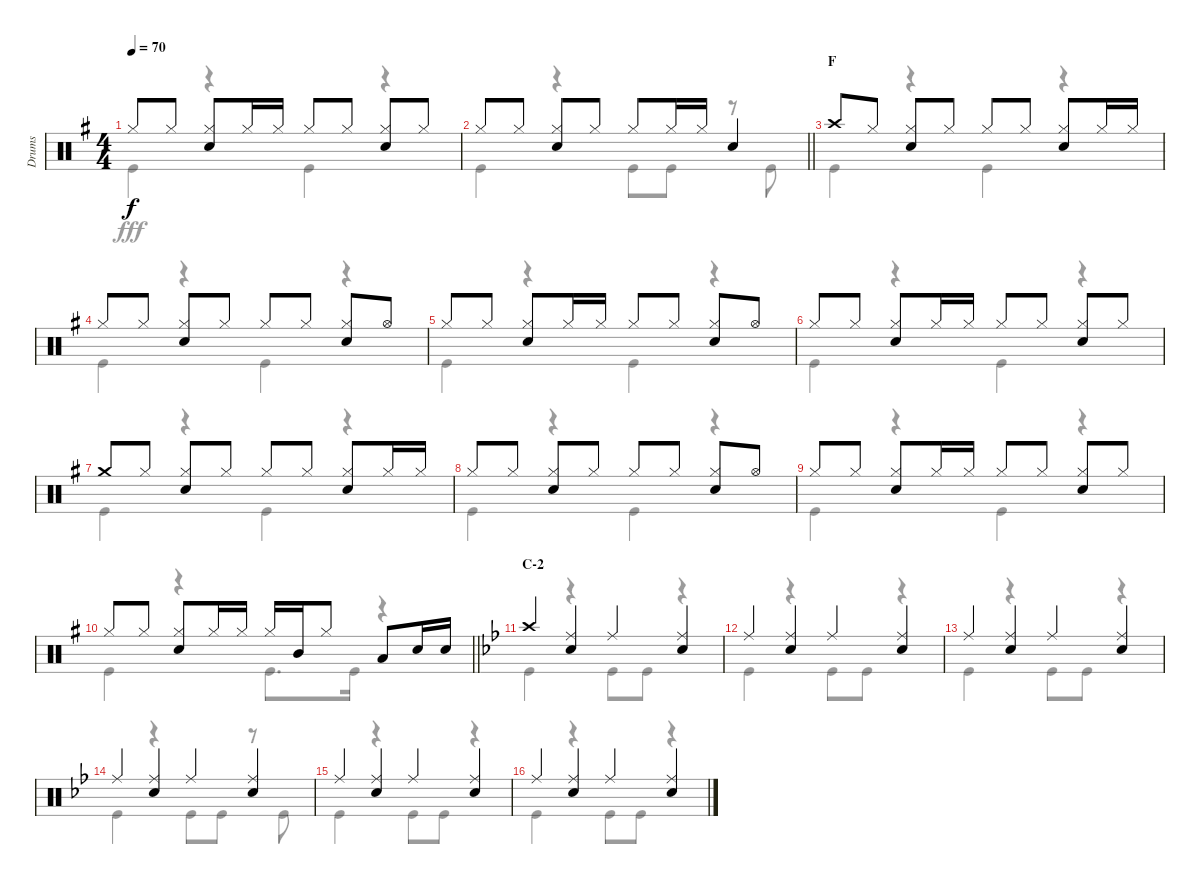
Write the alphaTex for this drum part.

\track ("Drums" "Drums") {instrument percussion}
\staff {score}
\articulation defaults
\voice
\ts (4 4)
\tempo 70
\clef neutral
\ks g "Hi-Hat (closed)".8{dy f} "Hi-Hat (closed)".8
("Hi-Hat (closed)" "Snare (hit) 2").8 "Hi-Hat (closed)".16 "Hi-Hat (closed)".16 "Hi-Hat (closed)".8 "Hi-Hat (closed)".8 ("Hi-Hat (closed)" "Snare (hit) 2").8 "Hi-Hat (closed)".8 |
\barLineRight lightlight "Hi-Hat (closed)".8 "Hi-Hat (closed)".8
("Hi-Hat (closed)" "Snare (hit) 2").8 "Hi-Hat (closed)".8 "Hi-Hat (closed)".8 "Hi-Hat (closed)".16 "Hi-Hat (closed)".16 "Snare (hit) 2".4 |
\section ("" "F")
"Crash high (hit)".8 "Hi-Hat (closed)".8 ("Hi-Hat (closed)" "Snare (hit) 2").8 "Hi-Hat (closed)".8 "Hi-Hat (closed)".8 "Hi-Hat (closed)".8 ("Hi-Hat (closed)" "Snare (hit) 2").8 "Hi-Hat (closed)".16 "Hi-Hat (closed)".16 |
"Hi-Hat (closed)".8 "Hi-Hat (closed)".8 ("Hi-Hat (closed)" "Snare (hit) 2").8 "Hi-Hat (closed)".8 "Hi-Hat (closed)".8 "Hi-Hat (closed)".8 ("Hi-Hat (closed)" "Snare (hit) 2").8 "Hi-Hat (open)".8 |
"Hi-Hat (closed)".8 "Hi-Hat (closed)".8 ("Hi-Hat (closed)" "Snare (hit) 2").8 "Hi-Hat (closed)".16 "Hi-Hat (closed)".16 "Hi-Hat (closed)".8 "Hi-Hat (closed)".8 ("Hi-Hat (closed)" "Snare (hit) 2").8 "Hi-Hat (open)".8 |
"Hi-Hat (closed)".8 "Hi-Hat (closed)".8 ("Hi-Hat (closed)" "Snare (hit) 2").8 "Hi-Hat (closed)".16 "Hi-Hat (closed)".16 "Hi-Hat (closed)".8 "Hi-Hat (closed)".8 ("Hi-Hat (closed)" "Snare (hit) 2").8 "Hi-Hat (closed)".8 |
"Crash medium (hit)".8 "Hi-Hat (closed)".8 ("Hi-Hat (closed)" "Snare (hit) 2").8 "Hi-Hat (closed)".8 "Hi-Hat (closed)".8 "Hi-Hat (closed)".8 ("Hi-Hat (closed)" "Snare (hit) 2").8 "Hi-Hat (closed)".16 "Hi-Hat (closed)".16 |
"Hi-Hat (closed)".8 "Hi-Hat (closed)".8 ("Hi-Hat (closed)" "Snare (hit) 2").8 "Hi-Hat (closed)".8 "Hi-Hat (closed)".8 "Hi-Hat (closed)".8 ("Hi-Hat (closed)" "Snare (hit) 2").8 "Hi-Hat (open)".8 |
"Hi-Hat (closed)".8 "Hi-Hat (closed)".8 ("Hi-Hat (closed)" "Snare (hit) 2").8 "Hi-Hat (closed)".16 "Hi-Hat (closed)".16 "Hi-Hat (closed)".8 "Hi-Hat (closed)".8 ("Hi-Hat (closed)" "Snare (hit) 2").8 "Hi-Hat (closed)".8 |
\barLineRight lightlight "Hi-Hat (closed)".8 "Hi-Hat (closed)".8
("Hi-Hat (closed)" "Snare (hit) 2").8 "Hi-Hat (closed)".16 "Hi-Hat (closed)".16 "Hi-Hat (closed)".16 "Mid Tom (hit)".16 "Hi-Hat (closed)".8 "Low Tom (hit)".8 "Snare (hit) 2".16 "Snare (hit) 2".16 |
\section ("" "C-2")
\ks bb "Crash high (hit)".4
("Ride (middle)" "Snare (hit) 2").4 "Ride (middle)".4 ("Ride (middle)" "Snare (hit) 2").4 |
"Ride (middle)".4 ("Ride (middle)" "Snare (hit) 2").4 "Ride (middle)".4 ("Ride (middle)" "Snare (hit) 2").4 |
"Ride (middle)".4 ("Ride (middle)" "Snare (hit) 2").4 "Ride (middle)".4 ("Ride (middle)" "Snare (hit) 2").4 |
"Ride (middle)".4 ("Ride (middle)" "Snare (hit) 2").4 "Ride (middle)".4 ("Ride (middle)" "Snare (hit) 2").4 |
"Ride (middle)".4 ("Ride (middle)" "Snare (hit) 2").4 "Ride (middle)".4 ("Ride (middle)" "Snare (hit) 2").4 |
"Ride (middle)".4 ("Ride (middle)" "Snare (hit) 2").4 "Ride (middle)".4 ("Ride (middle)" "Snare (hit) 2").4
\voice
\clef neutral
\ottava regular
\simile none
\ks g "Kick (hit)".4{dy fff}
r.4 "Kick (hit)".4 r.4 |
\barLineRight lightlight "Kick (hit)".4
r.4 "Kick (hit)".8 "Kick (hit)".8 r.8 "Kick (hit)".8 |
"Kick (hit)".4 r.4 "Kick (hit)".4 r.4 |
"Kick (hit)".4 r.4 "Kick (hit)".4 r.4 |
"Kick (hit)".4 r.4 "Kick (hit)".4 r.4 |
"Kick (hit)".4 r.4 "Kick (hit)".4 r.4 |
"Kick (hit)".4 r.4 "Kick (hit)".4 r.4 |
"Kick (hit)".4 r.4 "Kick (hit)".4 r.4 |
"Kick (hit)".4 r.4 "Kick (hit)".4 r.4 |
\barLineRight lightlight "Kick (hit)".4
r.4 "Kick (hit)".8{d} "Kick (hit)".16 r.4 |
\ks bb "Kick (hit)".4
r.4 "Kick (hit)".8 "Kick (hit)".8 r.4 |
"Kick (hit)".4 r.4 "Kick (hit)".8 "Kick (hit)".8 r.4 |
"Kick (hit)".4 r.4 "Kick (hit)".8 "Kick (hit)".8 r.4 |
"Kick (hit)".4 r.4 "Kick (hit)".8 "Kick (hit)".8 r.8 "Kick (hit)".8 |
"Kick (hit)".4 r.4 "Kick (hit)".8 "Kick (hit)".8 r.4 |
"Kick (hit)".4 r.4 "Kick (hit)".8 "Kick (hit)".8 r.4
